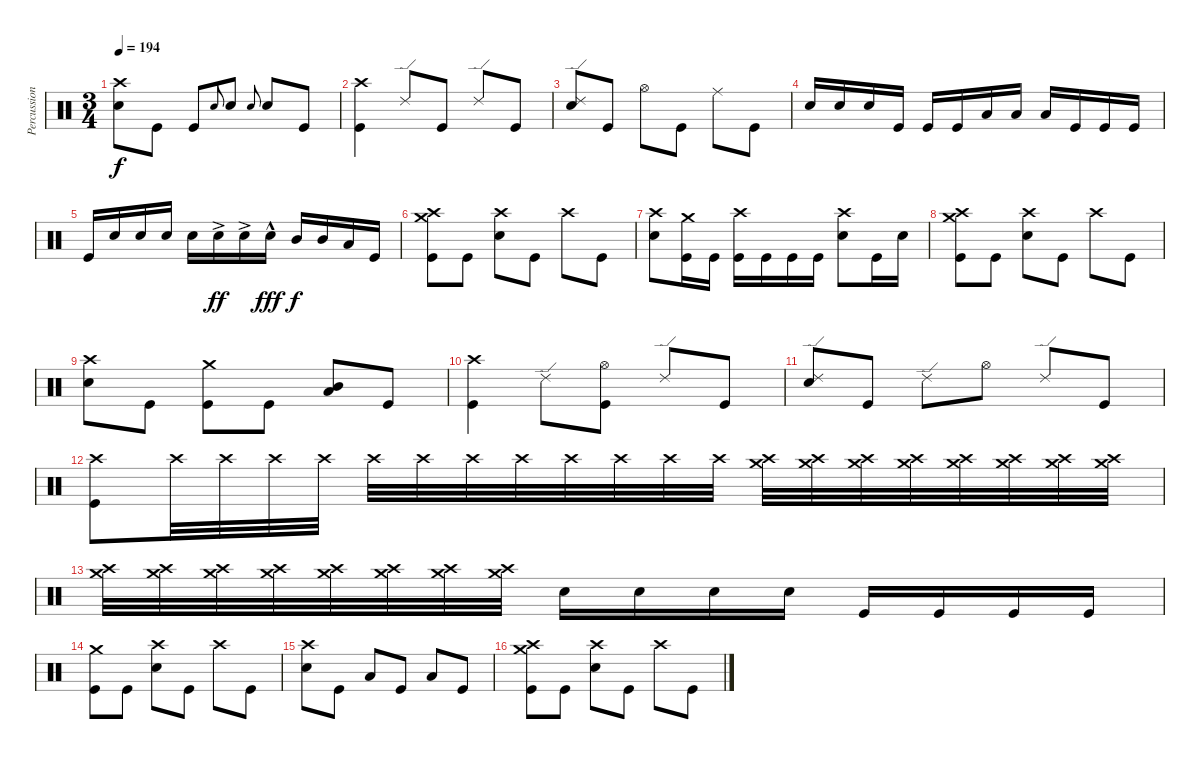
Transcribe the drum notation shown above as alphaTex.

\track ("Percussion" "Percussion") {instrument percussion}
\staff {score}
\articulation defaults
\ts (3 4)
\tempo 194
\clef neutral
\ks c
("Snare (hit) 2" "Crash high (hit)").8{dy f} "Kick (hit)".8 "Kick (hit)".8 "Snare (hit) 2".8{gr onbeat} "Snare (hit) 2".8 "Snare (hit) 2".8{gr onbeat} "Snare (hit) 2".8 "Kick (hit)".8 |
("Crash high (hit)" "Kick (hit)").4 "Ride (edge) 2".8 "Kick (hit)".8 "Ride (edge) 2".8 "Kick (hit)".8 |
("Ride (edge) 2" "Snare (hit) 2").8 "Kick (hit)".8 "Hi-Hat (open)".8 "Kick (hit)".8 "Ride (middle)".8 "Kick (hit)".8 |
"Snare (hit) 2".16 "Snare (hit) 2".16 "Snare (hit) 2".16 "Kick (hit)".16 "Kick (hit)".16 "Kick (hit)".16 "Low Tom (hit)".16 "Low Tom (hit)".16 "Low Tom (hit)".16 "Kick (hit)".16 "Kick (hit)".16 "Kick (hit)".16 |
"Kick (hit)".16 "Snare (hit) 2".16 "Snare (hit) 2".16 "Snare (hit) 2".16 "Snare (hit) 2".16 "Snare (hit) 2"{ac}.16{dy ff} "Snare (hit) 2"{ac}.16 "Snare (hit) 2"{hac}.16{dy fff} "Mid Tom (hit)".16{dy f} "Mid Tom (hit)".16 "Low Tom (hit)".16 "Kick (hit)".16 |
("Kick (hit)" "Crash high (hit)" "Crash medium (hit)").8 "Kick (hit)".8 ("Snare (hit) 2" "Crash high (hit)").8 "Kick (hit)".8 "Crash high (hit)".8 "Kick (hit)".8 |
("Snare (hit) 2" "Crash high (hit)").8 ("Kick (hit)" "Crash medium (hit)").16 "Kick (hit)".16 ("Kick (hit)" "Crash high (hit)").16 "Kick (hit)".16 "Kick (hit)".16 "Kick (hit)".16 ("Snare (hit) 2" "Crash high (hit)").8 "Kick (hit)".16 "Snare (hit) 2".16 |
("Kick (hit)" "Crash high (hit)" "Crash medium (hit)").8 "Kick (hit)".8 ("Snare (hit) 2" "Crash high (hit)").8 "Kick (hit)".8 "Crash high (hit)".8 "Kick (hit)".8 |
("Snare (hit) 2" "Crash high (hit)").8 "Kick (hit)".8 ("Crash medium (hit)" "Kick (hit)").8 "Kick (hit)".8 ("Mid Tom (hit)" "Low Tom (hit)").8 "Kick (hit)".8 |
("Crash high (hit)" "Kick (hit)").4 "Ride (edge) 2".8 ("Hi-Hat (open)" "Kick (hit)").8 "Ride (edge) 2".8 "Kick (hit)".8 |
("Ride (edge) 2" "Snare (hit) 2").8 "Kick (hit)".8 "Ride (edge) 2".8 "Hi-Hat (open)".8 "Ride (edge) 2".8 "Kick (hit)".8 |
("Crash high (hit)" "Kick (hit)").8 "Crash high (hit)".32{volume 6} "Crash high (hit)".32{volume 13} "Crash high (hit)".32 "Crash high (hit)".32 "Crash high (hit)".32 "Crash high (hit)".32 "Crash high (hit)".32 "Crash high (hit)".32 "Crash high (hit)".32 "Crash high (hit)".32 "Crash high (hit)".32 "Crash high (hit)".32 ("Crash high (hit)" "Crash medium (hit)").32 ("Crash high (hit)" "Crash medium (hit)").32 ("Crash high (hit)" "Crash medium (hit)").32 ("Crash high (hit)" "Crash medium (hit)").32 ("Crash high (hit)" "Crash medium (hit)").32 ("Crash high (hit)" "Crash medium (hit)").32 ("Crash high (hit)" "Crash medium (hit)").32 ("Crash high (hit)" "Crash medium (hit)").32 |
("Crash high (hit)" "Crash medium (hit)").32 ("Crash high (hit)" "Crash medium (hit)").32 ("Crash high (hit)" "Crash medium (hit)").32 ("Crash high (hit)" "Crash medium (hit)").32 ("Crash high (hit)" "Crash medium (hit)").32 ("Crash high (hit)" "Crash medium (hit)").32 ("Crash high (hit)" "Crash medium (hit)").32 ("Crash high (hit)" "Crash medium (hit)").32 "Snare (hit) 2".16 "Snare (hit) 2".16 "Snare (hit) 2".16 "Snare (hit) 2".16 "Kick (hit)".16 "Kick (hit)".16 "Kick (hit)".16 "Kick (hit)".16 |
("Kick (hit)" "Crash medium (hit)").8 "Kick (hit)".8 ("Snare (hit) 2" "Crash high (hit)").8 "Kick (hit)".8 "Crash high (hit)".8 "Kick (hit)".8 |
("Snare (hit) 2" "Crash high (hit)").8 "Kick (hit)".8 "Low Tom (hit)".8 "Kick (hit)".8 "Low Tom (hit)".8 "Kick (hit)".8 |
("Kick (hit)" "Crash high (hit)" "Crash medium (hit)").8 "Kick (hit)".8 ("Snare (hit) 2" "Crash high (hit)").8 "Kick (hit)".8 "Crash high (hit)".8 "Kick (hit)".8
